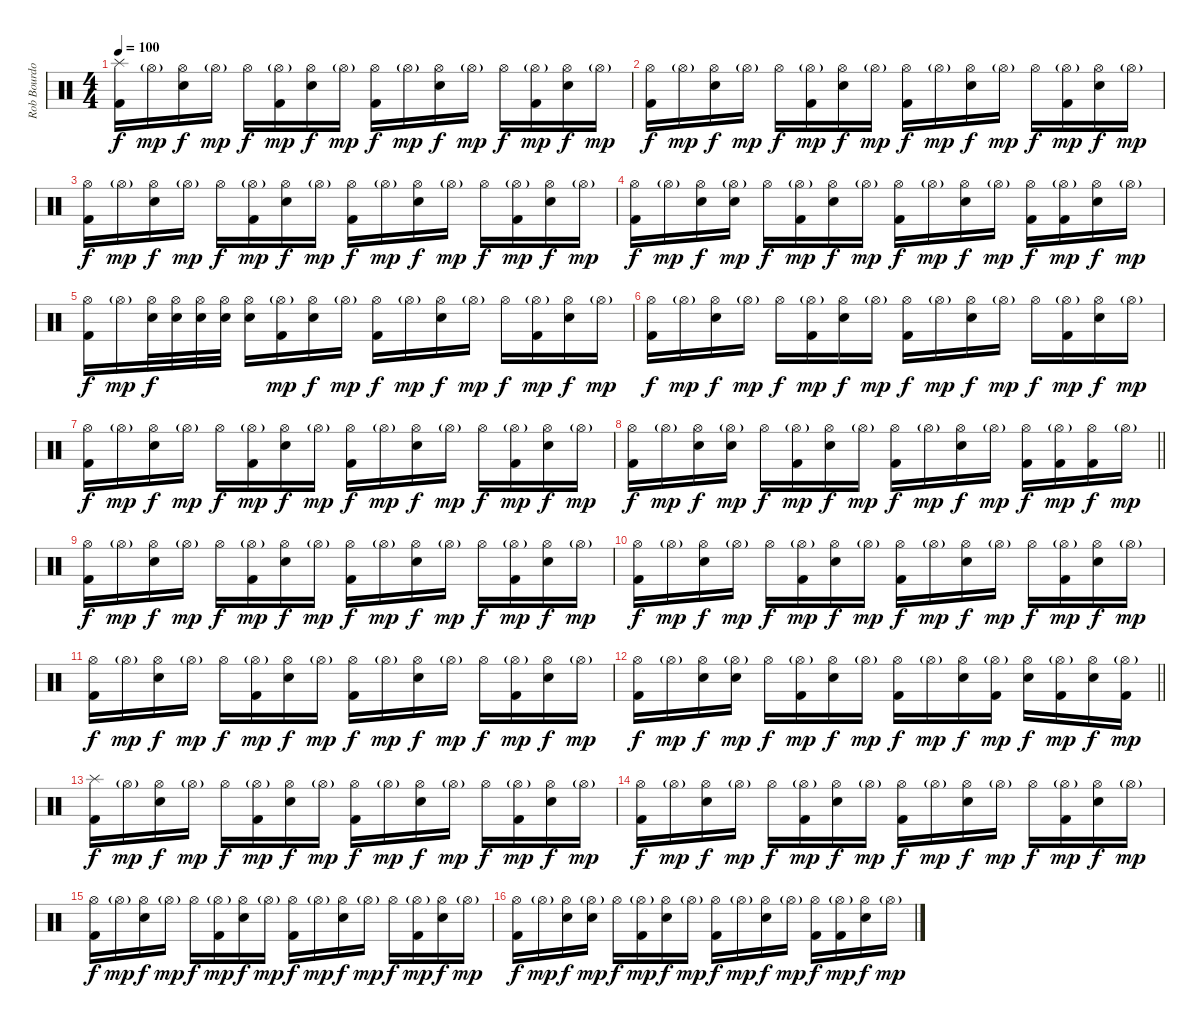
\track ("Rob Bourdon (Drums)" "Rob Bourdo") {instrument percussion}
\staff {score}
\articulation defaults
\ts (4 4)
\tempo 100
\clef neutral
\ks c
("Splash (hit)" "Kick (hit) 2").16{dy f} "Hi-Hat (open)"{g}.16{dy mp} ("Hi-Hat (open)" "Electric Snare (hit)").16{dy f} "Hi-Hat (open)"{g}.16{dy mp} "Hi-Hat (open)".16{dy f} ("Hi-Hat (open)"{g} "Kick (hit) 2").16{dy mp} ("Hi-Hat (open)" "Electric Snare (hit)").16{dy f} "Hi-Hat (open)"{g}.16{dy mp} ("Hi-Hat (open)" "Kick (hit) 2").16{dy f} "Hi-Hat (open)"{g}.16{dy mp} ("Hi-Hat (open)" "Electric Snare (hit)").16{dy f} "Hi-Hat (open)"{g}.16{dy mp} "Hi-Hat (open)".16{dy f} ("Hi-Hat (open)"{g} "Kick (hit) 2").16{dy mp} ("Hi-Hat (open)" "Electric Snare (hit)").16{dy f} "Hi-Hat (open)"{g}.16{dy mp} |
("Hi-Hat (open)" "Kick (hit) 2").16{dy f} "Hi-Hat (open)"{g}.16{dy mp} ("Hi-Hat (open)" "Electric Snare (hit)").16{dy f} "Hi-Hat (open)"{g}.16{dy mp} "Hi-Hat (open)".16{dy f} ("Hi-Hat (open)"{g} "Kick (hit) 2").16{dy mp} ("Hi-Hat (open)" "Electric Snare (hit)").16{dy f} "Hi-Hat (open)"{g}.16{dy mp} ("Hi-Hat (open)" "Kick (hit) 2").16{dy f} "Hi-Hat (open)"{g}.16{dy mp} ("Hi-Hat (open)" "Electric Snare (hit)").16{dy f} "Hi-Hat (open)"{g}.16{dy mp} "Hi-Hat (open)".16{dy f} ("Hi-Hat (open)"{g} "Kick (hit) 2").16{dy mp} ("Hi-Hat (open)" "Electric Snare (hit)").16{dy f} "Hi-Hat (open)"{g}.16{dy mp} |
("Hi-Hat (open)" "Kick (hit) 2").16{dy f} "Hi-Hat (open)"{g}.16{dy mp} ("Hi-Hat (open)" "Electric Snare (hit)").16{dy f} "Hi-Hat (open)"{g}.16{dy mp} "Hi-Hat (open)".16{dy f} ("Hi-Hat (open)"{g} "Kick (hit) 2").16{dy mp} ("Hi-Hat (open)" "Electric Snare (hit)").16{dy f} "Hi-Hat (open)"{g}.16{dy mp} ("Hi-Hat (open)" "Kick (hit) 2").16{dy f} "Hi-Hat (open)"{g}.16{dy mp} ("Hi-Hat (open)" "Electric Snare (hit)").16{dy f} "Hi-Hat (open)"{g}.16{dy mp} "Hi-Hat (open)".16{dy f} ("Hi-Hat (open)"{g} "Kick (hit) 2").16{dy mp} ("Hi-Hat (open)" "Electric Snare (hit)").16{dy f} "Hi-Hat (open)"{g}.16{dy mp} |
("Hi-Hat (open)" "Kick (hit) 2").16{dy f} "Hi-Hat (open)"{g}.16{dy mp} ("Hi-Hat (open)" "Electric Snare (hit)").16{dy f} ("Hi-Hat (open)"{g} "Electric Snare (hit)").16{dy mp} "Hi-Hat (open)".16{dy f} ("Hi-Hat (open)"{g} "Kick (hit) 2").16{dy mp} ("Hi-Hat (open)" "Electric Snare (hit)").16{dy f} "Hi-Hat (open)"{g}.16{dy mp} ("Hi-Hat (open)" "Kick (hit) 2").16{dy f} "Hi-Hat (open)"{g}.16{dy mp} ("Hi-Hat (open)" "Electric Snare (hit)").16{dy f} "Hi-Hat (open)"{g}.16{dy mp} ("Hi-Hat (open)" "Kick (hit) 2").16{dy f} ("Hi-Hat (open)"{g} "Kick (hit) 2").16{dy mp} ("Hi-Hat (open)" "Electric Snare (hit)").16{dy f} "Hi-Hat (open)"{g}.16{dy mp} |
("Hi-Hat (open)" "Kick (hit) 2").16{dy f} "Hi-Hat (open)"{g}.16{dy mp} ("Hi-Hat (open)" "Electric Snare (hit)").32{dy f} ("Hi-Hat (open)" "Electric Snare (hit)").32 ("Hi-Hat (open)" "Electric Snare (hit)").32 ("Hi-Hat (open)" "Electric Snare (hit)").32 ("Hi-Hat (open)" "Electric Snare (hit)").16 ("Hi-Hat (open)"{g} "Kick (hit) 2").16{dy mp} ("Hi-Hat (open)" "Electric Snare (hit)").16{dy f} "Hi-Hat (open)"{g}.16{dy mp} ("Hi-Hat (open)" "Kick (hit) 2").16{dy f} "Hi-Hat (open)"{g}.16{dy mp} ("Hi-Hat (open)" "Electric Snare (hit)").16{dy f} "Hi-Hat (open)"{g}.16{dy mp} "Hi-Hat (open)".16{dy f} ("Hi-Hat (open)"{g} "Kick (hit) 2").16{dy mp} ("Hi-Hat (open)" "Electric Snare (hit)").16{dy f} "Hi-Hat (open)"{g}.16{dy mp} |
("Hi-Hat (open)" "Kick (hit) 2").16{dy f} "Hi-Hat (open)"{g}.16{dy mp} ("Hi-Hat (open)" "Electric Snare (hit)").16{dy f} "Hi-Hat (open)"{g}.16{dy mp} "Hi-Hat (open)".16{dy f} ("Hi-Hat (open)"{g} "Kick (hit) 2").16{dy mp} ("Hi-Hat (open)" "Electric Snare (hit)").16{dy f} "Hi-Hat (open)"{g}.16{dy mp} ("Hi-Hat (open)" "Kick (hit) 2").16{dy f} "Hi-Hat (open)"{g}.16{dy mp} ("Hi-Hat (open)" "Electric Snare (hit)").16{dy f} "Hi-Hat (open)"{g}.16{dy mp} "Hi-Hat (open)".16{dy f} ("Hi-Hat (open)"{g} "Kick (hit) 2").16{dy mp} ("Hi-Hat (open)" "Electric Snare (hit)").16{dy f} "Hi-Hat (open)"{g}.16{dy mp} |
("Hi-Hat (open)" "Kick (hit) 2").16{dy f} "Hi-Hat (open)"{g}.16{dy mp} ("Hi-Hat (open)" "Electric Snare (hit)").16{dy f} "Hi-Hat (open)"{g}.16{dy mp} "Hi-Hat (open)".16{dy f} ("Hi-Hat (open)"{g} "Kick (hit) 2").16{dy mp} ("Hi-Hat (open)" "Electric Snare (hit)").16{dy f} "Hi-Hat (open)"{g}.16{dy mp} ("Hi-Hat (open)" "Kick (hit) 2").16{dy f} "Hi-Hat (open)"{g}.16{dy mp} ("Hi-Hat (open)" "Electric Snare (hit)").16{dy f} "Hi-Hat (open)"{g}.16{dy mp} "Hi-Hat (open)".16{dy f} ("Hi-Hat (open)"{g} "Kick (hit) 2").16{dy mp} ("Hi-Hat (open)" "Electric Snare (hit)").16{dy f} "Hi-Hat (open)"{g}.16{dy mp} |
\barLineRight lightlight
("Hi-Hat (open)" "Kick (hit) 2").16{dy f} "Hi-Hat (open)"{g}.16{dy mp} ("Hi-Hat (open)" "Electric Snare (hit)").16{dy f} ("Hi-Hat (open)"{g} "Electric Snare (hit)").16{dy mp} "Hi-Hat (open)".16{dy f} ("Hi-Hat (open)"{g} "Kick (hit) 2").16{dy mp} ("Hi-Hat (open)" "Electric Snare (hit)").16{dy f} "Hi-Hat (open)"{g}.16{dy mp} ("Hi-Hat (open)" "Kick (hit) 2").16{dy f} "Hi-Hat (open)"{g}.16{dy mp} ("Hi-Hat (open)" "Electric Snare (hit)").16{dy f} "Hi-Hat (open)"{g}.16{dy mp} ("Hi-Hat (open)" "Kick (hit) 2").16{dy f} ("Hi-Hat (open)"{g} "Kick (hit) 2").16{dy mp} ("Hi-Hat (open)" "Kick (hit) 2").16{dy f} "Hi-Hat (open)"{g}.16{dy mp} |
("Hi-Hat (open)" "Kick (hit) 2").16{dy f} "Hi-Hat (open)"{g}.16{dy mp} ("Hi-Hat (open)" "Electric Snare (hit)").16{dy f} "Hi-Hat (open)"{g}.16{dy mp} "Hi-Hat (open)".16{dy f} ("Hi-Hat (open)"{g} "Kick (hit) 2").16{dy mp} ("Hi-Hat (open)" "Electric Snare (hit)").16{dy f} "Hi-Hat (open)"{g}.16{dy mp} ("Hi-Hat (open)" "Kick (hit) 2").16{dy f} "Hi-Hat (open)"{g}.16{dy mp} ("Hi-Hat (open)" "Electric Snare (hit)").16{dy f} "Hi-Hat (open)"{g}.16{dy mp} "Hi-Hat (open)".16{dy f} ("Hi-Hat (open)"{g} "Kick (hit) 2").16{dy mp} ("Hi-Hat (open)" "Electric Snare (hit)").16{dy f} "Hi-Hat (open)"{g}.16{dy mp} |
("Hi-Hat (open)" "Kick (hit) 2").16{dy f} "Hi-Hat (open)"{g}.16{dy mp} ("Hi-Hat (open)" "Electric Snare (hit)").16{dy f} "Hi-Hat (open)"{g}.16{dy mp} "Hi-Hat (open)".16{dy f} ("Hi-Hat (open)"{g} "Kick (hit) 2").16{dy mp} ("Hi-Hat (open)" "Electric Snare (hit)").16{dy f} "Hi-Hat (open)"{g}.16{dy mp} ("Hi-Hat (open)" "Kick (hit) 2").16{dy f} "Hi-Hat (open)"{g}.16{dy mp} ("Hi-Hat (open)" "Electric Snare (hit)").16{dy f} "Hi-Hat (open)"{g}.16{dy mp} "Hi-Hat (open)".16{dy f} ("Hi-Hat (open)"{g} "Kick (hit) 2").16{dy mp} ("Hi-Hat (open)" "Electric Snare (hit)").16{dy f} "Hi-Hat (open)"{g}.16{dy mp} |
("Hi-Hat (open)" "Kick (hit) 2").16{dy f} "Hi-Hat (open)"{g}.16{dy mp} ("Hi-Hat (open)" "Electric Snare (hit)").16{dy f} "Hi-Hat (open)"{g}.16{dy mp} "Hi-Hat (open)".16{dy f} ("Hi-Hat (open)"{g} "Kick (hit) 2").16{dy mp} ("Hi-Hat (open)" "Electric Snare (hit)").16{dy f} "Hi-Hat (open)"{g}.16{dy mp} ("Hi-Hat (open)" "Kick (hit) 2").16{dy f} "Hi-Hat (open)"{g}.16{dy mp} ("Hi-Hat (open)" "Electric Snare (hit)").16{dy f} "Hi-Hat (open)"{g}.16{dy mp} "Hi-Hat (open)".16{dy f} ("Hi-Hat (open)"{g} "Kick (hit) 2").16{dy mp} ("Hi-Hat (open)" "Electric Snare (hit)").16{dy f} "Hi-Hat (open)"{g}.16{dy mp} |
\barLineRight lightlight
("Hi-Hat (open)" "Kick (hit) 2").16{dy f} "Hi-Hat (open)"{g}.16{dy mp} ("Hi-Hat (open)" "Electric Snare (hit)").16{dy f} ("Hi-Hat (open)"{g} "Electric Snare (hit)").16{dy mp} "Hi-Hat (open)".16{dy f} ("Hi-Hat (open)"{g} "Kick (hit) 2").16{dy mp} ("Hi-Hat (open)" "Electric Snare (hit)").16{dy f} "Hi-Hat (open)"{g}.16{dy mp} ("Hi-Hat (open)" "Kick (hit) 2").16{dy f} "Hi-Hat (open)"{g}.16{dy mp} ("Hi-Hat (open)" "Electric Snare (hit)").16{dy f} ("Hi-Hat (open)"{g} "Kick (hit) 2").16{dy mp} ("Hi-Hat (open)" "Electric Snare (hit)").16{dy f} ("Hi-Hat (open)"{g} "Kick (hit) 2").16{dy mp} ("Hi-Hat (open)" "Electric Snare (hit)").16{dy f} ("Hi-Hat (open)"{g} "Kick (hit) 2").16{dy mp} |
("Splash (hit)" "Kick (hit) 2").16{dy f} "Hi-Hat (open)"{g}.16{dy mp} ("Hi-Hat (open)" "Electric Snare (hit)").16{dy f} "Hi-Hat (open)"{g}.16{dy mp} "Hi-Hat (open)".16{dy f} ("Hi-Hat (open)"{g} "Kick (hit) 2").16{dy mp} ("Hi-Hat (open)" "Electric Snare (hit)").16{dy f} "Hi-Hat (open)"{g}.16{dy mp} ("Hi-Hat (open)" "Kick (hit) 2").16{dy f} "Hi-Hat (open)"{g}.16{dy mp} ("Hi-Hat (open)" "Electric Snare (hit)").16{dy f} "Hi-Hat (open)"{g}.16{dy mp} "Hi-Hat (open)".16{dy f} ("Hi-Hat (open)"{g} "Kick (hit) 2").16{dy mp} ("Hi-Hat (open)" "Electric Snare (hit)").16{dy f} "Hi-Hat (open)"{g}.16{dy mp} |
("Hi-Hat (open)" "Kick (hit) 2").16{dy f} "Hi-Hat (open)"{g}.16{dy mp} ("Hi-Hat (open)" "Electric Snare (hit)").16{dy f} "Hi-Hat (open)"{g}.16{dy mp} "Hi-Hat (open)".16{dy f} ("Hi-Hat (open)"{g} "Kick (hit) 2").16{dy mp} ("Hi-Hat (open)" "Electric Snare (hit)").16{dy f} "Hi-Hat (open)"{g}.16{dy mp} ("Hi-Hat (open)" "Kick (hit) 2").16{dy f} "Hi-Hat (open)"{g}.16{dy mp} ("Hi-Hat (open)" "Electric Snare (hit)").16{dy f} "Hi-Hat (open)"{g}.16{dy mp} "Hi-Hat (open)".16{dy f} ("Hi-Hat (open)"{g} "Kick (hit) 2").16{dy mp} ("Hi-Hat (open)" "Electric Snare (hit)").16{dy f} "Hi-Hat (open)"{g}.16{dy mp} |
("Hi-Hat (open)" "Kick (hit) 2").16{dy f} "Hi-Hat (open)"{g}.16{dy mp} ("Hi-Hat (open)" "Electric Snare (hit)").16{dy f} "Hi-Hat (open)"{g}.16{dy mp} "Hi-Hat (open)".16{dy f} ("Hi-Hat (open)"{g} "Kick (hit) 2").16{dy mp} ("Hi-Hat (open)" "Electric Snare (hit)").16{dy f} "Hi-Hat (open)"{g}.16{dy mp} ("Hi-Hat (open)" "Kick (hit) 2").16{dy f} "Hi-Hat (open)"{g}.16{dy mp} ("Hi-Hat (open)" "Electric Snare (hit)").16{dy f} "Hi-Hat (open)"{g}.16{dy mp} "Hi-Hat (open)".16{dy f} ("Hi-Hat (open)"{g} "Kick (hit) 2").16{dy mp} ("Hi-Hat (open)" "Electric Snare (hit)").16{dy f} "Hi-Hat (open)"{g}.16{dy mp} |
("Hi-Hat (open)" "Kick (hit) 2").16{dy f} "Hi-Hat (open)"{g}.16{dy mp} ("Hi-Hat (open)" "Electric Snare (hit)").16{dy f} ("Hi-Hat (open)"{g} "Electric Snare (hit)").16{dy mp} "Hi-Hat (open)".16{dy f} ("Hi-Hat (open)"{g} "Kick (hit) 2").16{dy mp} ("Hi-Hat (open)" "Electric Snare (hit)").16{dy f} "Hi-Hat (open)"{g}.16{dy mp} ("Hi-Hat (open)" "Kick (hit) 2").16{dy f} "Hi-Hat (open)"{g}.16{dy mp} ("Hi-Hat (open)" "Electric Snare (hit)").16{dy f} "Hi-Hat (open)"{g}.16{dy mp} ("Hi-Hat (open)" "Kick (hit) 2").16{dy f} ("Hi-Hat (open)"{g} "Kick (hit) 2").16{dy mp} ("Hi-Hat (open)" "Electric Snare (hit)").16{dy f} "Hi-Hat (open)"{g}.16{dy mp}
